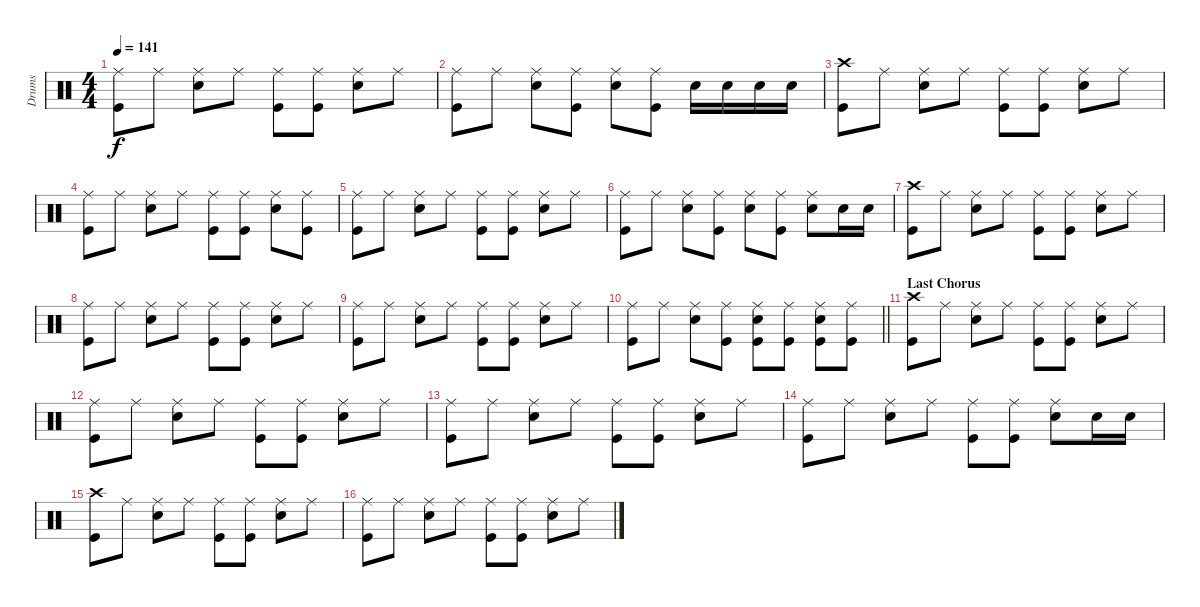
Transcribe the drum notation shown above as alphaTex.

\track ("Drums" "Drums") {instrument percussion}
\staff {score}
\articulation defaults
\ts (4 4)
\tempo 141
\clef neutral
\ks c
("Ride (middle)" "Kick (hit)").8{dy f} "Ride (middle)".8 ("Ride (middle)" "Snare (hit) 2").8 "Ride (middle)".8 ("Ride (middle)" "Kick (hit)").8 ("Ride (middle)" "Kick (hit)").8 ("Ride (middle)" "Snare (hit) 2").8 "Ride (middle)".8 |
("Ride (middle)" "Kick (hit)").8 "Ride (middle)".8 ("Ride (middle)" "Snare (hit) 2").8 ("Ride (middle)" "Kick (hit)").8 ("Ride (middle)" "Snare (hit) 2").8 ("Ride (middle)" "Kick (hit)").8 "Snare (hit) 2".16 "Snare (hit) 2".16 "Snare (hit) 2".16 "Snare (hit) 2".16 |
("Crash high (hit)" "Kick (hit)").8 "Ride (middle)".8 ("Ride (middle)" "Snare (hit) 2").8 "Ride (middle)".8 ("Ride (middle)" "Kick (hit)").8 ("Ride (middle)" "Kick (hit)").8 ("Ride (middle)" "Snare (hit) 2").8 "Ride (middle)".8 |
("Ride (middle)" "Kick (hit)").8 "Ride (middle)".8 ("Ride (middle)" "Snare (hit) 2").8 "Ride (middle)".8 ("Ride (middle)" "Kick (hit)").8 ("Ride (middle)" "Kick (hit)").8 ("Ride (middle)" "Snare (hit) 2").8 ("Ride (middle)" "Kick (hit)").8 |
("Ride (middle)" "Kick (hit)").8 "Ride (middle)".8 ("Ride (middle)" "Snare (hit) 2").8 "Ride (middle)".8 ("Ride (middle)" "Kick (hit)").8 ("Ride (middle)" "Kick (hit)").8 ("Ride (middle)" "Snare (hit) 2").8 "Ride (middle)".8 |
("Ride (middle)" "Kick (hit)").8 "Ride (middle)".8 ("Ride (middle)" "Snare (hit) 2").8 ("Ride (middle)" "Kick (hit)").8 ("Ride (middle)" "Snare (hit) 2").8 ("Ride (middle)" "Kick (hit)").8 ("Ride (middle)" "Snare (hit) 2").8 "Snare (hit) 2".16 "Snare (hit) 2".16 |
("Crash high (hit)" "Kick (hit)").8 "Ride (middle)".8 ("Ride (middle)" "Snare (hit) 2").8 "Ride (middle)".8 ("Ride (middle)" "Kick (hit)").8 ("Ride (middle)" "Kick (hit)").8 ("Ride (middle)" "Snare (hit) 2").8 "Ride (middle)".8 |
("Ride (middle)" "Kick (hit)").8 "Ride (middle)".8 ("Ride (middle)" "Snare (hit) 2").8 "Ride (middle)".8 ("Ride (middle)" "Kick (hit)").8 ("Ride (middle)" "Kick (hit)").8 ("Ride (middle)" "Snare (hit) 2").8 "Ride (middle)".8 |
("Ride (middle)" "Kick (hit)").8 "Ride (middle)".8 ("Ride (middle)" "Snare (hit) 2").8 "Ride (middle)".8 ("Ride (middle)" "Kick (hit)").8 ("Ride (middle)" "Kick (hit)").8 ("Ride (middle)" "Snare (hit) 2").8 "Ride (middle)".8 |
\barLineRight lightlight
("Ride (middle)" "Kick (hit)").8 "Ride (middle)".8 ("Ride (middle)" "Snare (hit) 2").8 ("Ride (middle)" "Kick (hit)").8 ("Ride (middle)" "Snare (hit) 2" "Kick (hit)").8 ("Ride (middle)" "Kick (hit)").8 ("Ride (middle)" "Snare (hit) 2" "Kick (hit)").8 ("Ride (middle)" "Kick (hit)").8 |
\section ("" "Last Chorus")
("Crash high (hit)" "Kick (hit)").8 "Ride (middle)".8 ("Ride (middle)" "Snare (hit) 2").8 "Ride (middle)".8 ("Ride (middle)" "Kick (hit)").8 ("Ride (middle)" "Kick (hit)").8 ("Ride (middle)" "Snare (hit) 2").8 "Ride (middle)".8 |
("Ride (middle)" "Kick (hit)").8 "Ride (middle)".8 ("Ride (middle)" "Snare (hit) 2").8 "Ride (middle)".8 ("Ride (middle)" "Kick (hit)").8 ("Ride (middle)" "Kick (hit)").8 ("Ride (middle)" "Snare (hit) 2").8 "Ride (middle)".8 |
("Ride (middle)" "Kick (hit)").8 "Ride (middle)".8 ("Ride (middle)" "Snare (hit) 2").8 "Ride (middle)".8 ("Ride (middle)" "Kick (hit)").8 ("Ride (middle)" "Kick (hit)").8 ("Ride (middle)" "Snare (hit) 2").8 "Ride (middle)".8 |
("Ride (middle)" "Kick (hit)").8 "Ride (middle)".8 ("Ride (middle)" "Snare (hit) 2").8 "Ride (middle)".8 ("Ride (middle)" "Kick (hit)").8 ("Ride (middle)" "Kick (hit)").8 ("Ride (middle)" "Snare (hit) 2").8 "Snare (hit) 2".16 "Snare (hit) 2".16 |
("Crash high (hit)" "Kick (hit)").8 "Ride (middle)".8 ("Ride (middle)" "Snare (hit) 2").8 "Ride (middle)".8 ("Ride (middle)" "Kick (hit)").8 ("Ride (middle)" "Kick (hit)").8 ("Ride (middle)" "Snare (hit) 2").8 "Ride (middle)".8 |
("Ride (middle)" "Kick (hit)").8 "Ride (middle)".8 ("Ride (middle)" "Snare (hit) 2").8 "Ride (middle)".8 ("Ride (middle)" "Kick (hit)").8 ("Ride (middle)" "Kick (hit)").8 ("Ride (middle)" "Snare (hit) 2").8 "Ride (middle)".8
